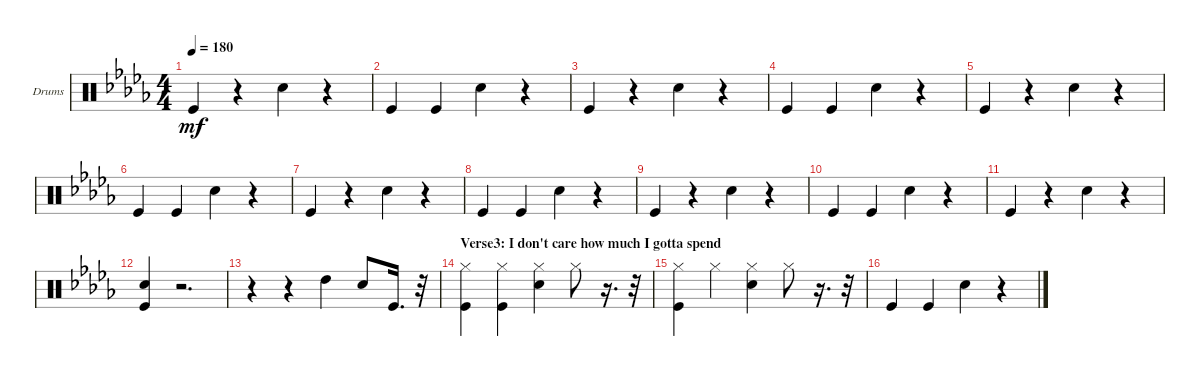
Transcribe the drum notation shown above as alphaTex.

\bracketExtendMode groupsimilarinstruments
\firstSystemTrackNameOrientation horizontal
\otherSystemsTrackNameOrientation horizontal
\track ("Drums" "Drums") {instrument percussion}
\staff {score}
\articulation defaults
\ts (4 4)
\tempo 180
\clef neutral
\ks bbminor "Kick (hit)".4{dy mf}
r.4 "Snare (hit) 2".4 r.4 |
"Kick (hit)".4 "Kick (hit)".4 "Snare (hit) 2".4 r.4 |
"Kick (hit)".4 r.4 "Snare (hit) 2".4 r.4 |
"Kick (hit)".4 "Kick (hit)".4 "Snare (hit) 2".4 r.4 |
"Kick (hit)".4 r.4 "Snare (hit) 2".4 r.4 |
"Kick (hit)".4 "Kick (hit)".4 "Snare (hit) 2".4 r.4 |
"Kick (hit)".4 r.4 "Snare (hit) 2".4 r.4 |
"Kick (hit)".4 "Kick (hit)".4 "Snare (hit) 2".4 r.4 |
"Kick (hit)".4 r.4 "Snare (hit) 2".4 r.4 |
"Kick (hit)".4 "Kick (hit)".4 "Snare (hit) 2".4 r.4 |
"Kick (hit)".4 r.4 "Snare (hit) 2".4 r.4 |
("Kick (hit)" "Snare (hit) 2").4 r.2{d} |
r.4 r.4 "High Tom (hit)".4 "Snare (hit) 2".8 "Kick (hit)".16{d} r.32 |
\section ("" "Verse3: I don't care how much I gotta spend")
("Hi-Hat (closed)" "Kick (hit)").4 ("Kick (hit)" "Hi-Hat (closed)").4 ("Snare (hit) 2" "Hi-Hat (closed)").4 "Hi-Hat (closed)".8 r.16{d} r.32 |
("Kick (hit)" "Hi-Hat (closed)").4 "Hi-Hat (closed)".4 ("Snare (hit) 2" "Hi-Hat (closed)").4 "Hi-Hat (closed)".8 r.16{d} r.32 |
"Kick (hit)".4 "Kick (hit)".4 "Snare (hit) 2".4 r.4
